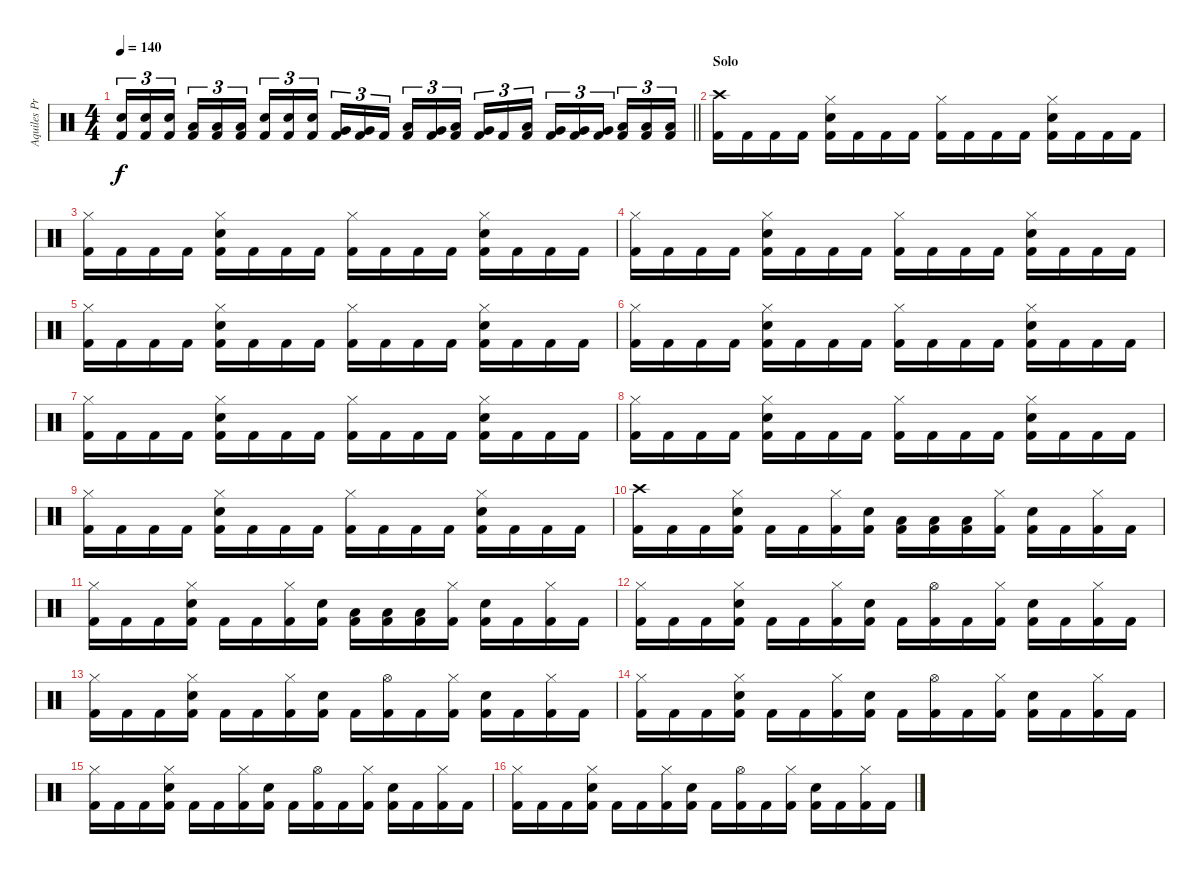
\track ("Aquiles Priester" "Aquiles Pr") {instrument percussion}
\staff {score}
\articulation defaults
\ts (4 4)
\tempo 140
\clef neutral
\barLineRight lightlight
\ks c
("Electric Snare (hit)" "Kick (hit) 2").16{tu (3 2) dy f} ("Electric Snare (hit)" "Kick (hit) 2").16{tu (3 2)} ("Electric Snare (hit)" "Kick (hit) 2").16{tu (3 2)} ("Low Tom (hit)" "Kick (hit) 2").16{tu (3 2)} ("Low Tom (hit)" "Kick (hit) 2").16{tu (3 2)} ("Low Tom (hit)" "Kick (hit) 2").16{tu (3 2)} ("Electric Snare (hit)" "Kick (hit) 2").16{tu (3 2)} ("Electric Snare (hit)" "Kick (hit) 2").16{tu (3 2)} ("Electric Snare (hit)" "Kick (hit) 2").16{tu (3 2)} ("Very Low Tom (hit)" "Kick (hit) 2").16{tu (3 2)} ("Very Low Tom (hit)" "Kick (hit) 2").16{tu (3 2)} "Kick (hit) 2".16{tu (3 2)} ("Low Tom (hit)" "Kick (hit) 2").16{tu (3 2)} ("Very Low Tom (hit)" "Kick (hit) 2").16{tu (3 2)} ("Low Floor Tom (hit)" "Kick (hit) 2").16{tu (3 2)} ("Very Low Tom (hit)" "Kick (hit) 2").16{tu (3 2)} "Kick (hit) 2".16{tu (3 2)} ("Low Tom (hit)" "Kick (hit) 2").16{tu (3 2)} ("Very Low Tom (hit)" "Kick (hit) 2").16{tu (3 2)} ("Very Low Tom (hit)" "Kick (hit) 2").16{tu (3 2)} ("Very Low Tom (hit)" "Kick (hit) 2").16{tu (3 2)} ("Low Floor Tom (hit)" "Kick (hit) 2").16{tu (3 2)} ("Low Floor Tom (hit)" "Kick (hit) 2").16{tu (3 2)} ("Low Floor Tom (hit)" "Kick (hit) 2").16{tu (3 2)} |
\section ("" "Solo")
("Crash high (hit)" "Kick (hit) 2").16 "Kick (hit) 2".16 "Kick (hit) 2".16 "Kick (hit) 2".16 ("Hi-Hat (closed)" "Electric Snare (hit)" "Kick (hit) 2").16 "Kick (hit) 2".16 "Kick (hit) 2".16 "Kick (hit) 2".16 ("Hi-Hat (closed)" "Kick (hit) 2").16 "Kick (hit) 2".16 "Kick (hit) 2".16 "Kick (hit) 2".16 ("Hi-Hat (closed)" "Electric Snare (hit)" "Kick (hit) 2").16 "Kick (hit) 2".16 "Kick (hit) 2".16 "Kick (hit) 2".16 |
("Hi-Hat (closed)" "Kick (hit) 2").16 "Kick (hit) 2".16 "Kick (hit) 2".16 "Kick (hit) 2".16 ("Hi-Hat (closed)" "Electric Snare (hit)" "Kick (hit) 2").16 "Kick (hit) 2".16 "Kick (hit) 2".16 "Kick (hit) 2".16 ("Hi-Hat (closed)" "Kick (hit) 2").16 "Kick (hit) 2".16 "Kick (hit) 2".16 "Kick (hit) 2".16 ("Hi-Hat (closed)" "Electric Snare (hit)" "Kick (hit) 2").16 "Kick (hit) 2".16 "Kick (hit) 2".16 "Kick (hit) 2".16 |
("Hi-Hat (closed)" "Kick (hit) 2").16 "Kick (hit) 2".16 "Kick (hit) 2".16 "Kick (hit) 2".16 ("Hi-Hat (closed)" "Electric Snare (hit)" "Kick (hit) 2").16 "Kick (hit) 2".16 "Kick (hit) 2".16 "Kick (hit) 2".16 ("Hi-Hat (closed)" "Kick (hit) 2").16 "Kick (hit) 2".16 "Kick (hit) 2".16 "Kick (hit) 2".16 ("Hi-Hat (closed)" "Electric Snare (hit)" "Kick (hit) 2").16 "Kick (hit) 2".16 "Kick (hit) 2".16 "Kick (hit) 2".16 |
("Hi-Hat (closed)" "Kick (hit) 2").16 "Kick (hit) 2".16 "Kick (hit) 2".16 "Kick (hit) 2".16 ("Hi-Hat (closed)" "Electric Snare (hit)" "Kick (hit) 2").16 "Kick (hit) 2".16 "Kick (hit) 2".16 "Kick (hit) 2".16 ("Hi-Hat (closed)" "Kick (hit) 2").16 "Kick (hit) 2".16 "Kick (hit) 2".16 "Kick (hit) 2".16 ("Hi-Hat (closed)" "Electric Snare (hit)" "Kick (hit) 2").16 "Kick (hit) 2".16 "Kick (hit) 2".16 "Kick (hit) 2".16 |
("Hi-Hat (closed)" "Kick (hit) 2").16 "Kick (hit) 2".16 "Kick (hit) 2".16 "Kick (hit) 2".16 ("Hi-Hat (closed)" "Electric Snare (hit)" "Kick (hit) 2").16 "Kick (hit) 2".16 "Kick (hit) 2".16 "Kick (hit) 2".16 ("Hi-Hat (closed)" "Kick (hit) 2").16 "Kick (hit) 2".16 "Kick (hit) 2".16 "Kick (hit) 2".16 ("Hi-Hat (closed)" "Electric Snare (hit)" "Kick (hit) 2").16 "Kick (hit) 2".16 "Kick (hit) 2".16 "Kick (hit) 2".16 |
("Hi-Hat (closed)" "Kick (hit) 2").16 "Kick (hit) 2".16 "Kick (hit) 2".16 "Kick (hit) 2".16 ("Hi-Hat (closed)" "Electric Snare (hit)" "Kick (hit) 2").16 "Kick (hit) 2".16 "Kick (hit) 2".16 "Kick (hit) 2".16 ("Hi-Hat (closed)" "Kick (hit) 2").16 "Kick (hit) 2".16 "Kick (hit) 2".16 "Kick (hit) 2".16 ("Hi-Hat (closed)" "Electric Snare (hit)" "Kick (hit) 2").16 "Kick (hit) 2".16 "Kick (hit) 2".16 "Kick (hit) 2".16 |
("Hi-Hat (closed)" "Kick (hit) 2").16 "Kick (hit) 2".16 "Kick (hit) 2".16 "Kick (hit) 2".16 ("Hi-Hat (closed)" "Electric Snare (hit)" "Kick (hit) 2").16 "Kick (hit) 2".16 "Kick (hit) 2".16 "Kick (hit) 2".16 ("Hi-Hat (closed)" "Kick (hit) 2").16 "Kick (hit) 2".16 "Kick (hit) 2".16 "Kick (hit) 2".16 ("Hi-Hat (closed)" "Electric Snare (hit)" "Kick (hit) 2").16 "Kick (hit) 2".16 "Kick (hit) 2".16 "Kick (hit) 2".16 |
("Hi-Hat (closed)" "Kick (hit) 2").16 "Kick (hit) 2".16 "Kick (hit) 2".16 "Kick (hit) 2".16 ("Hi-Hat (closed)" "Electric Snare (hit)" "Kick (hit) 2").16 "Kick (hit) 2".16 "Kick (hit) 2".16 "Kick (hit) 2".16 ("Hi-Hat (closed)" "Kick (hit) 2").16 "Kick (hit) 2".16 "Kick (hit) 2".16 "Kick (hit) 2".16 ("Hi-Hat (closed)" "Electric Snare (hit)" "Kick (hit) 2").16 "Kick (hit) 2".16 "Kick (hit) 2".16 "Kick (hit) 2".16 |
("Crash high (hit)" "Kick (hit) 2").16 "Kick (hit) 2".16 "Kick (hit) 2".16 ("Hi-Hat (closed)" "Electric Snare (hit)" "Kick (hit) 2").16 "Kick (hit) 2".16 "Kick (hit) 2".16 ("Hi-Hat (closed)" "Kick (hit) 2").16 ("Electric Snare (hit)" "Kick (hit) 2").16 ("Low Tom (hit)" "Kick (hit) 2").16 ("Low Tom (hit)" "Kick (hit) 2").16 ("Low Tom (hit)" "Kick (hit) 2").16 ("Hi-Hat (closed)" "Kick (hit) 2").16 ("Electric Snare (hit)" "Kick (hit) 2").16 "Kick (hit) 2".16 ("Hi-Hat (closed)" "Kick (hit) 2").16 "Kick (hit) 2".16 |
("Hi-Hat (closed)" "Kick (hit) 2").16 "Kick (hit) 2".16 "Kick (hit) 2".16 ("Hi-Hat (closed)" "Electric Snare (hit)" "Kick (hit) 2").16 "Kick (hit) 2".16 "Kick (hit) 2".16 ("Hi-Hat (closed)" "Kick (hit) 2").16 ("Electric Snare (hit)" "Kick (hit) 2").16 ("Low Tom (hit)" "Kick (hit) 2").16 ("Low Tom (hit)" "Kick (hit) 2").16 ("Low Tom (hit)" "Kick (hit) 2").16 ("Hi-Hat (closed)" "Kick (hit) 2").16 ("Electric Snare (hit)" "Kick (hit) 2").16 "Kick (hit) 2".16 ("Hi-Hat (closed)" "Kick (hit) 2").16 "Kick (hit) 2".16 |
("Hi-Hat (closed)" "Kick (hit) 2").16 "Kick (hit) 2".16 "Kick (hit) 2".16 ("Hi-Hat (closed)" "Electric Snare (hit)" "Kick (hit) 2").16 "Kick (hit) 2".16 "Kick (hit) 2".16 ("Hi-Hat (closed)" "Kick (hit) 2").16 ("Electric Snare (hit)" "Kick (hit) 2").16 "Kick (hit) 2".16 ("Hi-Hat (open)" "Kick (hit) 2").16 "Kick (hit) 2".16 ("Hi-Hat (closed)" "Kick (hit) 2").16 ("Electric Snare (hit)" "Kick (hit) 2").16 "Kick (hit) 2".16 ("Hi-Hat (closed)" "Kick (hit) 2").16 "Kick (hit) 2".16 |
("Hi-Hat (closed)" "Kick (hit) 2").16 "Kick (hit) 2".16 "Kick (hit) 2".16 ("Hi-Hat (closed)" "Electric Snare (hit)" "Kick (hit) 2").16 "Kick (hit) 2".16 "Kick (hit) 2".16 ("Hi-Hat (closed)" "Kick (hit) 2").16 ("Electric Snare (hit)" "Kick (hit) 2").16 "Kick (hit) 2".16 ("Hi-Hat (open)" "Kick (hit) 2").16 "Kick (hit) 2".16 ("Hi-Hat (closed)" "Kick (hit) 2").16 ("Electric Snare (hit)" "Kick (hit) 2").16 "Kick (hit) 2".16 ("Hi-Hat (closed)" "Kick (hit) 2").16 "Kick (hit) 2".16 |
("Hi-Hat (closed)" "Kick (hit) 2").16 "Kick (hit) 2".16 "Kick (hit) 2".16 ("Hi-Hat (closed)" "Electric Snare (hit)" "Kick (hit) 2").16 "Kick (hit) 2".16 "Kick (hit) 2".16 ("Hi-Hat (closed)" "Kick (hit) 2").16 ("Electric Snare (hit)" "Kick (hit) 2").16 "Kick (hit) 2".16 ("Hi-Hat (open)" "Kick (hit) 2").16 "Kick (hit) 2".16 ("Hi-Hat (closed)" "Kick (hit) 2").16 ("Electric Snare (hit)" "Kick (hit) 2").16 "Kick (hit) 2".16 ("Hi-Hat (closed)" "Kick (hit) 2").16 "Kick (hit) 2".16 |
("Hi-Hat (closed)" "Kick (hit) 2").16 "Kick (hit) 2".16 "Kick (hit) 2".16 ("Hi-Hat (closed)" "Electric Snare (hit)" "Kick (hit) 2").16 "Kick (hit) 2".16 "Kick (hit) 2".16 ("Hi-Hat (closed)" "Kick (hit) 2").16 ("Electric Snare (hit)" "Kick (hit) 2").16 "Kick (hit) 2".16 ("Hi-Hat (open)" "Kick (hit) 2").16 "Kick (hit) 2".16 ("Hi-Hat (closed)" "Kick (hit) 2").16 ("Electric Snare (hit)" "Kick (hit) 2").16 "Kick (hit) 2".16 ("Hi-Hat (closed)" "Kick (hit) 2").16 "Kick (hit) 2".16 |
("Hi-Hat (closed)" "Kick (hit) 2").16 "Kick (hit) 2".16 "Kick (hit) 2".16 ("Hi-Hat (closed)" "Electric Snare (hit)" "Kick (hit) 2").16 "Kick (hit) 2".16 "Kick (hit) 2".16 ("Hi-Hat (closed)" "Kick (hit) 2").16 ("Electric Snare (hit)" "Kick (hit) 2").16 "Kick (hit) 2".16 ("Hi-Hat (open)" "Kick (hit) 2").16 "Kick (hit) 2".16 ("Hi-Hat (closed)" "Kick (hit) 2").16 ("Electric Snare (hit)" "Kick (hit) 2").16 "Kick (hit) 2".16 ("Hi-Hat (closed)" "Kick (hit) 2").16 "Kick (hit) 2".16
